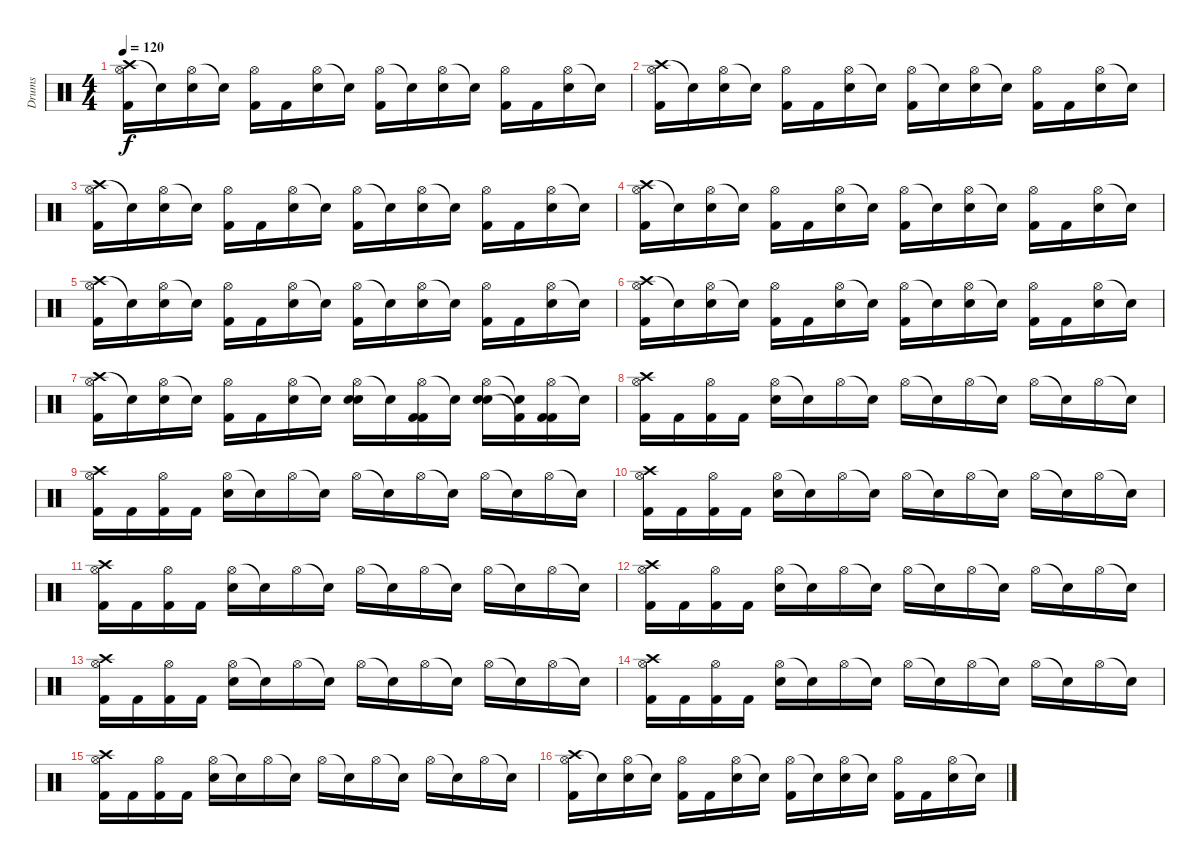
\track ("Drums" "Drums") {instrument percussion}
\staff {score}
\articulation defaults
\ts (4 4)
\tempo 120
\clef neutral
\ks c
("Crash high (hit)" "Hi-Hat (open)" "Kick (hit) 2").16{dy f} "Snare (hit)"{t}.16 ("Hi-Hat (open)" "Electric Snare (hit)").16 "Snare (hit)"{t}.16 ("Hi-Hat (open)" "Kick (hit) 2").16 "Kick (hit) 2".16 ("Hi-Hat (open)" "Electric Snare (hit)").16 "Snare (hit)"{t}.16 ("Hi-Hat (open)" "Kick (hit) 2").16 "Snare (hit)"{t}.16 ("Hi-Hat (open)" "Electric Snare (hit)").16 "Snare (hit)"{t}.16 ("Hi-Hat (open)" "Kick (hit) 2").16 "Kick (hit) 2".16 ("Hi-Hat (open)" "Electric Snare (hit)").16 "Snare (hit)"{t}.16 |
("Crash high (hit)" "Hi-Hat (open)" "Kick (hit) 2").16 "Snare (hit)"{t}.16 ("Hi-Hat (open)" "Electric Snare (hit)").16 "Snare (hit)"{t}.16 ("Hi-Hat (open)" "Kick (hit) 2").16 "Kick (hit) 2".16 ("Hi-Hat (open)" "Electric Snare (hit)").16 "Snare (hit)"{t}.16 ("Hi-Hat (open)" "Kick (hit) 2").16 "Snare (hit)"{t}.16 ("Hi-Hat (open)" "Electric Snare (hit)").16 "Snare (hit)"{t}.16 ("Hi-Hat (open)" "Kick (hit) 2").16 "Kick (hit) 2".16 ("Hi-Hat (open)" "Electric Snare (hit)").16 "Snare (hit)"{t}.16 |
("Crash high (hit)" "Hi-Hat (open)" "Kick (hit) 2").16 "Snare (hit)"{t}.16 ("Hi-Hat (open)" "Electric Snare (hit)").16 "Snare (hit)"{t}.16 ("Hi-Hat (open)" "Kick (hit) 2").16 "Kick (hit) 2".16 ("Hi-Hat (open)" "Electric Snare (hit)").16 "Snare (hit)"{t}.16 ("Hi-Hat (open)" "Kick (hit) 2").16 "Snare (hit)"{t}.16 ("Hi-Hat (open)" "Electric Snare (hit)").16 "Snare (hit)"{t}.16 ("Hi-Hat (open)" "Kick (hit) 2").16 "Kick (hit) 2".16 ("Hi-Hat (open)" "Electric Snare (hit)").16 "Snare (hit)"{t}.16 |
("Crash high (hit)" "Hi-Hat (open)" "Kick (hit) 2").16 "Snare (hit)"{t}.16 ("Hi-Hat (open)" "Electric Snare (hit)").16 "Snare (hit)"{t}.16 ("Hi-Hat (open)" "Kick (hit) 2").16 "Kick (hit) 2".16 ("Hi-Hat (open)" "Electric Snare (hit)").16 "Snare (hit)"{t}.16 ("Hi-Hat (open)" "Kick (hit) 2").16 "Snare (hit)"{t}.16 ("Hi-Hat (open)" "Electric Snare (hit)").16 "Snare (hit)"{t}.16 ("Hi-Hat (open)" "Kick (hit) 2").16 "Kick (hit) 2".16 ("Hi-Hat (open)" "Electric Snare (hit)").16 "Snare (hit)"{t}.16 |
("Crash high (hit)" "Hi-Hat (open)" "Kick (hit) 2").16 "Snare (hit)"{t}.16 ("Hi-Hat (open)" "Electric Snare (hit)").16 "Snare (hit)"{t}.16 ("Hi-Hat (open)" "Kick (hit) 2").16 "Kick (hit) 2".16 ("Hi-Hat (open)" "Electric Snare (hit)").16 "Snare (hit)"{t}.16 ("Hi-Hat (open)" "Kick (hit) 2").16 "Snare (hit)"{t}.16 ("Hi-Hat (open)" "Electric Snare (hit)").16 "Snare (hit)"{t}.16 ("Hi-Hat (open)" "Kick (hit) 2").16 "Kick (hit) 2".16 ("Hi-Hat (open)" "Electric Snare (hit)").16 "Snare (hit)"{t}.16 |
("Crash high (hit)" "Hi-Hat (open)" "Kick (hit) 2").16 "Snare (hit)"{t}.16 ("Hi-Hat (open)" "Electric Snare (hit)").16 "Snare (hit)"{t}.16 ("Hi-Hat (open)" "Kick (hit) 2").16 "Kick (hit) 2".16 ("Hi-Hat (open)" "Electric Snare (hit)").16 "Snare (hit)"{t}.16 ("Hi-Hat (open)" "Kick (hit) 2").16 "Snare (hit)"{t}.16 ("Hi-Hat (open)" "Electric Snare (hit)").16 "Snare (hit)"{t}.16 ("Hi-Hat (open)" "Kick (hit) 2").16 "Kick (hit) 2".16 ("Hi-Hat (open)" "Electric Snare (hit)").16 "Snare (hit)"{t}.16 |
("Crash high (hit)" "Hi-Hat (open)" "Kick (hit) 2").16 "Snare (hit)"{t}.16 ("Hi-Hat (open)" "Electric Snare (hit)").16 "Snare (hit)"{t}.16 ("Hi-Hat (open)" "Kick (hit) 2").16 "Kick (hit) 2".16 ("Hi-Hat (open)" "Electric Snare (hit)").16 "Snare (hit)"{t}.16 ("Hi-Hat (open)" "Electric Snare (hit)" "Electric Snare (hit)").16 "Snare (hit)"{t}.16 ("Hi-Hat (open)" "Kick (hit) 2" "Kick (hit) 2").16 "Snare (hit)"{t}.16 ("Hi-Hat (open)" "Electric Snare (hit)" "Electric Snare (hit)").16 ("Snare (hit)"{t} "Kick (hit) 2"{t}).16 ("Hi-Hat (open)" "Kick (hit) 2" "Kick (hit) 2").16 "Snare (hit)"{t}.16 |
("Crash high (hit)" "Hi-Hat (open)" "Kick (hit) 2").16 "Kick (hit) 2".16 ("Hi-Hat (open)" "Kick (hit) 2").16 "Kick (hit) 2".16 ("Hi-Hat (open)" "Electric Snare (hit)").16 "Snare (hit)"{t}.16 "Hi-Hat (open)".16 "Snare (hit)"{t}.16 "Hi-Hat (open)".16 "Snare (hit)"{t}.16 "Hi-Hat (open)".16 "Snare (hit)"{t}.16 "Hi-Hat (open)".16 "Snare (hit)"{t}.16 "Hi-Hat (open)".16 "Snare (hit)"{t}.16 |
("Crash high (hit)" "Hi-Hat (open)" "Kick (hit) 2").16 "Kick (hit) 2".16 ("Hi-Hat (open)" "Kick (hit) 2").16 "Kick (hit) 2".16 ("Hi-Hat (open)" "Electric Snare (hit)").16 "Snare (hit)"{t}.16 "Hi-Hat (open)".16 "Snare (hit)"{t}.16 "Hi-Hat (open)".16 "Snare (hit)"{t}.16 "Hi-Hat (open)".16 "Snare (hit)"{t}.16 "Hi-Hat (open)".16 "Snare (hit)"{t}.16 "Hi-Hat (open)".16 "Snare (hit)"{t}.16 |
("Crash high (hit)" "Hi-Hat (open)" "Kick (hit) 2").16 "Kick (hit) 2".16 ("Hi-Hat (open)" "Kick (hit) 2").16 "Kick (hit) 2".16 ("Hi-Hat (open)" "Electric Snare (hit)").16 "Snare (hit)"{t}.16 "Hi-Hat (open)".16 "Snare (hit)"{t}.16 "Hi-Hat (open)".16 "Snare (hit)"{t}.16 "Hi-Hat (open)".16 "Snare (hit)"{t}.16 "Hi-Hat (open)".16 "Snare (hit)"{t}.16 "Hi-Hat (open)".16 "Snare (hit)"{t}.16 |
("Crash high (hit)" "Hi-Hat (open)" "Kick (hit) 2").16 "Kick (hit) 2".16 ("Hi-Hat (open)" "Kick (hit) 2").16 "Kick (hit) 2".16 ("Hi-Hat (open)" "Electric Snare (hit)").16 "Snare (hit)"{t}.16 "Hi-Hat (open)".16 "Snare (hit)"{t}.16 "Hi-Hat (open)".16 "Snare (hit)"{t}.16 "Hi-Hat (open)".16 "Snare (hit)"{t}.16 "Hi-Hat (open)".16 "Snare (hit)"{t}.16 "Hi-Hat (open)".16 "Snare (hit)"{t}.16 |
("Crash high (hit)" "Hi-Hat (open)" "Kick (hit) 2").16 "Kick (hit) 2".16 ("Hi-Hat (open)" "Kick (hit) 2").16 "Kick (hit) 2".16 ("Hi-Hat (open)" "Electric Snare (hit)").16 "Snare (hit)"{t}.16 "Hi-Hat (open)".16 "Snare (hit)"{t}.16 "Hi-Hat (open)".16 "Snare (hit)"{t}.16 "Hi-Hat (open)".16 "Snare (hit)"{t}.16 "Hi-Hat (open)".16 "Snare (hit)"{t}.16 "Hi-Hat (open)".16 "Snare (hit)"{t}.16 |
("Crash high (hit)" "Hi-Hat (open)" "Kick (hit) 2").16 "Kick (hit) 2".16 ("Hi-Hat (open)" "Kick (hit) 2").16 "Kick (hit) 2".16 ("Hi-Hat (open)" "Electric Snare (hit)").16 "Snare (hit)"{t}.16 "Hi-Hat (open)".16 "Snare (hit)"{t}.16 "Hi-Hat (open)".16 "Snare (hit)"{t}.16 "Hi-Hat (open)".16 "Snare (hit)"{t}.16 "Hi-Hat (open)".16 "Snare (hit)"{t}.16 "Hi-Hat (open)".16 "Snare (hit)"{t}.16 |
("Crash high (hit)" "Hi-Hat (open)" "Kick (hit) 2").16 "Kick (hit) 2".16 ("Hi-Hat (open)" "Kick (hit) 2").16 "Kick (hit) 2".16 ("Hi-Hat (open)" "Electric Snare (hit)").16 "Snare (hit)"{t}.16 "Hi-Hat (open)".16 "Snare (hit)"{t}.16 "Hi-Hat (open)".16 "Snare (hit)"{t}.16 "Hi-Hat (open)".16 "Snare (hit)"{t}.16 "Hi-Hat (open)".16 "Snare (hit)"{t}.16 "Hi-Hat (open)".16 "Snare (hit)"{t}.16 |
("Crash high (hit)" "Hi-Hat (open)" "Kick (hit) 2").16 "Kick (hit) 2".16 ("Hi-Hat (open)" "Kick (hit) 2").16 "Kick (hit) 2".16 ("Hi-Hat (open)" "Electric Snare (hit)").16 "Snare (hit)"{t}.16 "Hi-Hat (open)".16 "Snare (hit)"{t}.16 "Hi-Hat (open)".16 "Snare (hit)"{t}.16 "Hi-Hat (open)".16 "Snare (hit)"{t}.16 "Hi-Hat (open)".16 "Snare (hit)"{t}.16 "Hi-Hat (open)".16 "Snare (hit)"{t}.16 |
("Crash high (hit)" "Hi-Hat (open)" "Kick (hit) 2").16 "Snare (hit)"{t}.16 ("Hi-Hat (open)" "Electric Snare (hit)").16 "Snare (hit)"{t}.16 ("Hi-Hat (open)" "Kick (hit) 2").16 "Kick (hit) 2".16 ("Hi-Hat (open)" "Electric Snare (hit)").16 "Snare (hit)"{t}.16 ("Hi-Hat (open)" "Kick (hit) 2").16 "Snare (hit)"{t}.16 ("Hi-Hat (open)" "Electric Snare (hit)").16 "Snare (hit)"{t}.16 ("Hi-Hat (open)" "Kick (hit) 2").16 "Kick (hit) 2".16 ("Hi-Hat (open)" "Electric Snare (hit)").16 "Snare (hit)"{t}.16
